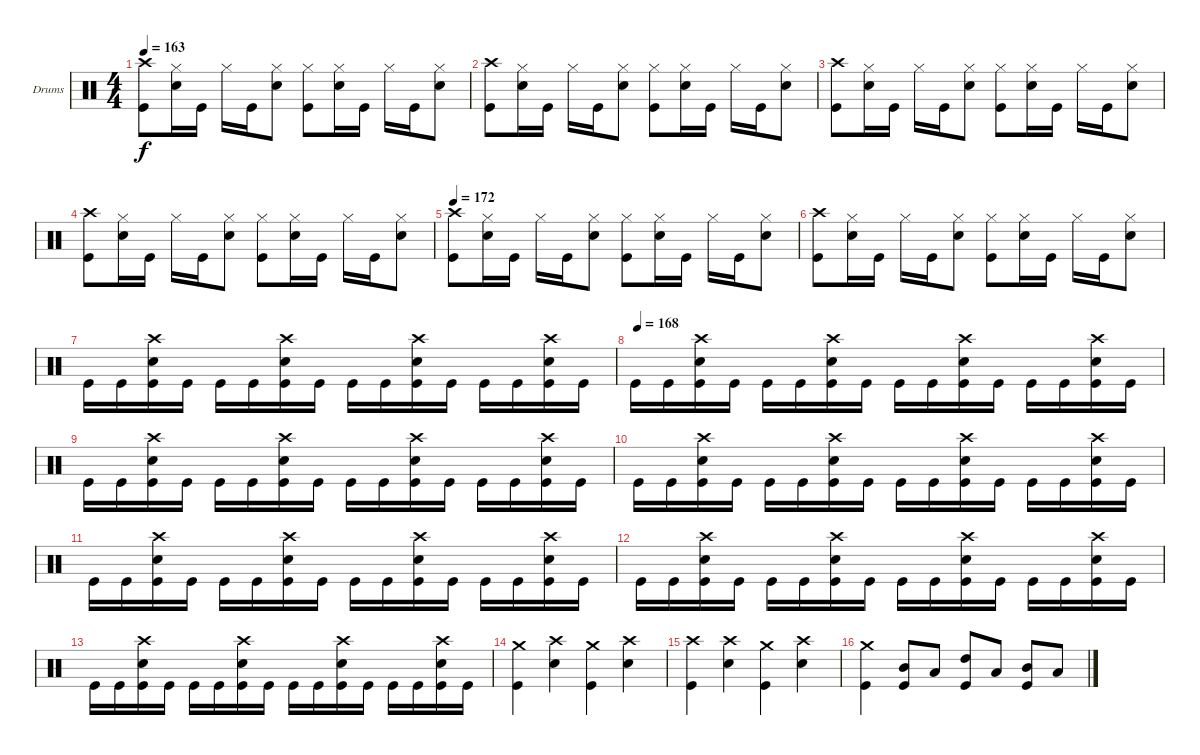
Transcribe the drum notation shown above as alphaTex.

\bracketExtendMode groupsimilarinstruments
\firstSystemTrackNameOrientation horizontal
\otherSystemsTrackNameOrientation horizontal
\track ("Drumkit" "Drums") {instrument percussion}
\staff {score}
\articulation defaults
\ts (4 4)
\tempo 163
\clef neutral
\ks c
("Crash high (hit)" "Kick (hit)").8{dy f} ("Hi-Hat (closed)" "Snare (hit) 2").16 "Kick (hit)".16 "Hi-Hat (closed)".16 "Kick (hit)".16 ("Hi-Hat (closed)" "Snare (hit) 2").8 ("Hi-Hat (closed)" "Kick (hit)").8 ("Hi-Hat (closed)" "Snare (hit) 2").16 "Kick (hit)".16 "Hi-Hat (closed)".16 "Kick (hit)".16 ("Hi-Hat (closed)" "Snare (hit) 2").8 |
("Crash high (hit)" "Kick (hit)").8 ("Hi-Hat (closed)" "Snare (hit) 2").16 "Kick (hit)".16 "Hi-Hat (closed)".16 "Kick (hit)".16 ("Hi-Hat (closed)" "Snare (hit) 2").8 ("Hi-Hat (closed)" "Kick (hit)").8 ("Hi-Hat (closed)" "Snare (hit) 2").16 "Kick (hit)".16 "Hi-Hat (closed)".16 "Kick (hit)".16 ("Hi-Hat (closed)" "Snare (hit) 2").8 |
("Crash high (hit)" "Kick (hit)").8 ("Hi-Hat (closed)" "Snare (hit) 2").16 "Kick (hit)".16 "Hi-Hat (closed)".16 "Kick (hit)".16 ("Hi-Hat (closed)" "Snare (hit) 2").8 ("Hi-Hat (closed)" "Kick (hit)").8 ("Hi-Hat (closed)" "Snare (hit) 2").16 "Kick (hit)".16 "Hi-Hat (closed)".16 "Kick (hit)".16 ("Hi-Hat (closed)" "Snare (hit) 2").8 |
("Crash high (hit)" "Kick (hit)").8 ("Hi-Hat (closed)" "Snare (hit) 2").16 "Kick (hit)".16 "Hi-Hat (closed)".16 "Kick (hit)".16 ("Hi-Hat (closed)" "Snare (hit) 2").8 ("Hi-Hat (closed)" "Kick (hit)").8 ("Hi-Hat (closed)" "Snare (hit) 2").16 "Kick (hit)".16 "Hi-Hat (closed)".16 "Kick (hit)".16 ("Hi-Hat (closed)" "Snare (hit) 2").8 |
\tempo 172
("Crash high (hit)" "Kick (hit)").8 ("Hi-Hat (closed)" "Snare (hit) 2").16 "Kick (hit)".16 "Hi-Hat (closed)".16 "Kick (hit)".16 ("Hi-Hat (closed)" "Snare (hit) 2").8 ("Hi-Hat (closed)" "Kick (hit)").8 ("Hi-Hat (closed)" "Snare (hit) 2").16 "Kick (hit)".16 "Hi-Hat (closed)".16 "Kick (hit)".16 ("Hi-Hat (closed)" "Snare (hit) 2").8 |
("Crash high (hit)" "Kick (hit)").8 ("Hi-Hat (closed)" "Snare (hit) 2").16 "Kick (hit)".16 "Hi-Hat (closed)".16 "Kick (hit)".16 ("Hi-Hat (closed)" "Snare (hit) 2").8 ("Hi-Hat (closed)" "Kick (hit)").8 ("Hi-Hat (closed)" "Snare (hit) 2").16 "Kick (hit)".16 "Hi-Hat (closed)".16 "Kick (hit)".16 ("Hi-Hat (closed)" "Snare (hit) 2").8 |
"Kick (hit)".16 "Kick (hit)".16 ("Crash high (hit)" "Snare (hit) 2" "Kick (hit)").16 "Kick (hit)".16 "Kick (hit)".16 "Kick (hit)".16 ("Crash high (hit)" "Snare (hit) 2" "Kick (hit)").16 "Kick (hit)".16 "Kick (hit)".16 "Kick (hit)".16 ("Crash high (hit)" "Snare (hit) 2" "Kick (hit)").16 "Kick (hit)".16 "Kick (hit)".16 "Kick (hit)".16 ("Crash high (hit)" "Snare (hit) 2" "Kick (hit)").16 "Kick (hit)".16 |
\tempo (168 0.00625)
"Kick (hit)".16 "Kick (hit)".16 ("Crash high (hit)" "Snare (hit) 2" "Kick (hit)").16 "Kick (hit)".16 "Kick (hit)".16 "Kick (hit)".16 ("Crash high (hit)" "Snare (hit) 2" "Kick (hit)").16 "Kick (hit)".16 "Kick (hit)".16 "Kick (hit)".16 ("Crash high (hit)" "Snare (hit) 2" "Kick (hit)").16 "Kick (hit)".16 "Kick (hit)".16 "Kick (hit)".16 ("Crash high (hit)" "Snare (hit) 2" "Kick (hit)").16 "Kick (hit)".16 |
"Kick (hit)".16 "Kick (hit)".16 ("Crash high (hit)" "Snare (hit) 2" "Kick (hit)").16 "Kick (hit)".16 "Kick (hit)".16 "Kick (hit)".16 ("Crash high (hit)" "Snare (hit) 2" "Kick (hit)").16 "Kick (hit)".16 "Kick (hit)".16 "Kick (hit)".16 ("Crash high (hit)" "Snare (hit) 2" "Kick (hit)").16 "Kick (hit)".16 "Kick (hit)".16 "Kick (hit)".16 ("Crash high (hit)" "Snare (hit) 2" "Kick (hit)").16 "Kick (hit)".16 |
"Kick (hit)".16 "Kick (hit)".16 ("Crash high (hit)" "Snare (hit) 2" "Kick (hit)").16 "Kick (hit)".16 "Kick (hit)".16 "Kick (hit)".16 ("Crash high (hit)" "Snare (hit) 2" "Kick (hit)").16 "Kick (hit)".16 "Kick (hit)".16 "Kick (hit)".16 ("Crash high (hit)" "Snare (hit) 2" "Kick (hit)").16 "Kick (hit)".16 "Kick (hit)".16 "Kick (hit)".16 ("Crash high (hit)" "Snare (hit) 2" "Kick (hit)").16 "Kick (hit)".16 |
"Kick (hit)".16 "Kick (hit)".16 ("Crash high (hit)" "Snare (hit) 2" "Kick (hit)").16 "Kick (hit)".16 "Kick (hit)".16 "Kick (hit)".16 ("Crash high (hit)" "Snare (hit) 2" "Kick (hit)").16 "Kick (hit)".16 "Kick (hit)".16 "Kick (hit)".16 ("Crash high (hit)" "Snare (hit) 2" "Kick (hit)").16 "Kick (hit)".16 "Kick (hit)".16 "Kick (hit)".16 ("Crash high (hit)" "Snare (hit) 2" "Kick (hit)").16 "Kick (hit)".16 |
"Kick (hit)".16 "Kick (hit)".16 ("Crash high (hit)" "Snare (hit) 2" "Kick (hit)").16 "Kick (hit)".16 "Kick (hit)".16 "Kick (hit)".16 ("Crash high (hit)" "Snare (hit) 2" "Kick (hit)").16 "Kick (hit)".16 "Kick (hit)".16 "Kick (hit)".16 ("Crash high (hit)" "Snare (hit) 2" "Kick (hit)").16 "Kick (hit)".16 "Kick (hit)".16 "Kick (hit)".16 ("Crash high (hit)" "Snare (hit) 2" "Kick (hit)").16 "Kick (hit)".16 |
"Kick (hit)".16 "Kick (hit)".16 ("Crash high (hit)" "Snare (hit) 2" "Kick (hit)").16 "Kick (hit)".16 "Kick (hit)".16 "Kick (hit)".16 ("Crash high (hit)" "Snare (hit) 2" "Kick (hit)").16 "Kick (hit)".16 "Kick (hit)".16 "Kick (hit)".16 ("Crash high (hit)" "Snare (hit) 2" "Kick (hit)").16 "Kick (hit)".16 "Kick (hit)".16 "Kick (hit)".16 ("Crash high (hit)" "Snare (hit) 2" "Kick (hit)").16 "Kick (hit)".16 |
("Crash medium (hit)" "Kick (hit)").4 ("Crash high (hit)" "Snare (hit) 2").4 ("Crash medium (hit)" "Kick (hit)").4 ("Crash high (hit)" "Snare (hit) 2").4 |
("Crash high (hit)" "Kick (hit)").4 ("Crash high (hit)" "Snare (hit) 2").4 ("Crash medium (hit)" "Kick (hit)").4 ("Crash high (hit)" "Snare (hit) 2").4 |
("Crash medium (hit)" "Kick (hit)").4 ("Mid Tom (hit)" "Kick (hit)").8 "Low Tom (hit)".8 ("High Tom (hit)" "Kick (hit)").8 "Low Tom (hit)".8 ("Mid Tom (hit)" "Kick (hit)").8 "Low Tom (hit)".8
